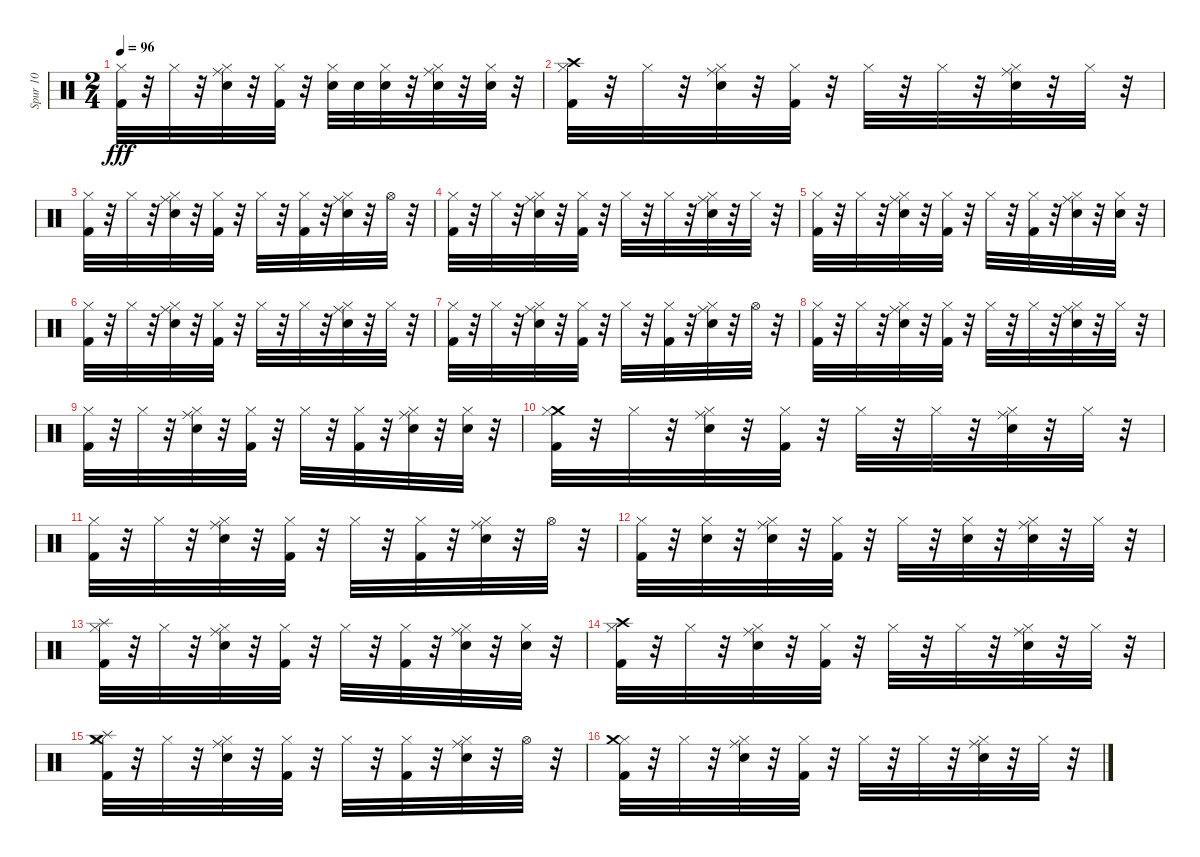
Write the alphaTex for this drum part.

\track ("Spur 10" "Spur 10") {instrument percussion}
\staff {score}
\articulation defaults
\ts (2 4)
\tempo 96
\clef neutral
\ks c
("Hi-Hat (closed)" "Kick (hit) 2").32{dy fff} r.32 "Hi-Hat (closed)".32 r.32 ("Hi-Hat (closed)" "Ride (middle)" "Electric Snare (hit)").32 r.32 ("Hi-Hat (closed)" "Kick (hit) 2").32 r.32 ("Hi-Hat (closed)" "Electric Snare (hit)").32 "Electric Snare (hit)".32 ("Hi-Hat (closed)" "Electric Snare (hit)").32 r.32 ("Hi-Hat (closed)" "Electric Snare (hit)" "Ride (middle)").32 r.32 ("Hi-Hat (closed)" "Electric Snare (hit)").32 r.32 |
("Hi-Hat (closed)" "Crash high (hit)" "Kick (hit) 2").32 r.32 "Hi-Hat (closed)".32 r.32 ("Hi-Hat (closed)" "Electric Snare (hit)" "Ride (middle)").32 r.32 ("Hi-Hat (closed)" "Kick (hit) 2").32 r.32 "Hi-Hat (closed)".32 r.32 "Hi-Hat (closed)".32 r.32 ("Hi-Hat (closed)" "Electric Snare (hit)" "Ride (middle)").32 r.32 "Hi-Hat (closed)".32 r.32 |
("Hi-Hat (closed)" "Kick (hit) 2").32 r.32 "Hi-Hat (closed)".32 r.32 ("Hi-Hat (closed)" "Electric Snare (hit)" "Ride (middle)").32 r.32 ("Hi-Hat (closed)" "Kick (hit) 2").32 r.32 "Hi-Hat (closed)".32 r.32 ("Hi-Hat (closed)" "Kick (hit) 2").32 r.32 ("Hi-Hat (closed)" "Electric Snare (hit)" "Ride (middle)").32 r.32 "Hi-Hat (open)".32 r.32 |
("Hi-Hat (closed)" "Kick (hit) 2").32 r.32 "Hi-Hat (closed)".32 r.32 ("Hi-Hat (closed)" "Ride (middle)" "Electric Snare (hit)").32 r.32 ("Hi-Hat (closed)" "Kick (hit) 2").32 r.32 "Hi-Hat (closed)".32 r.32 "Hi-Hat (closed)".32 r.32 ("Hi-Hat (closed)" "Ride (middle)" "Electric Snare (hit)").32 r.32 "Hi-Hat (closed)".32 r.32 |
("Hi-Hat (closed)" "Kick (hit) 2").32 r.32 "Hi-Hat (closed)".32 r.32 ("Hi-Hat (closed)" "Ride (middle)" "Electric Snare (hit)").32 r.32 ("Hi-Hat (closed)" "Kick (hit) 2").32 r.32 "Hi-Hat (closed)".32 r.32 ("Hi-Hat (closed)" "Kick (hit) 2").32 r.32 ("Hi-Hat (closed)" "Ride (middle)" "Electric Snare (hit)").32 r.32 ("Hi-Hat (closed)" "Electric Snare (hit)").32 r.32 |
("Hi-Hat (closed)" "Kick (hit) 2").32 r.32 "Hi-Hat (closed)".32 r.32 ("Hi-Hat (closed)" "Electric Snare (hit)" "Ride (middle)").32 r.32 ("Hi-Hat (closed)" "Kick (hit) 2").32 r.32 "Hi-Hat (closed)".32 r.32 "Hi-Hat (closed)".32 r.32 ("Hi-Hat (closed)" "Electric Snare (hit)" "Ride (middle)").32 r.32 "Hi-Hat (closed)".32 r.32 |
("Hi-Hat (closed)" "Kick (hit) 2").32 r.32 "Hi-Hat (closed)".32 r.32 ("Hi-Hat (closed)" "Electric Snare (hit)" "Ride (middle)").32 r.32 ("Hi-Hat (closed)" "Kick (hit) 2").32 r.32 "Hi-Hat (closed)".32 r.32 ("Hi-Hat (closed)" "Kick (hit) 2").32 r.32 ("Hi-Hat (closed)" "Electric Snare (hit)" "Ride (middle)").32 r.32 "Hi-Hat (open)".32 r.32 |
("Hi-Hat (closed)" "Kick (hit) 2").32 r.32 "Hi-Hat (closed)".32 r.32 ("Hi-Hat (closed)" "Ride (middle)" "Electric Snare (hit)").32 r.32 ("Hi-Hat (closed)" "Kick (hit) 2").32 r.32 "Hi-Hat (closed)".32 r.32 "Hi-Hat (closed)".32 r.32 ("Hi-Hat (closed)" "Ride (middle)" "Electric Snare (hit)").32 r.32 "Hi-Hat (closed)".32 r.32 |
("Hi-Hat (closed)" "Kick (hit) 2").32 r.32 "Hi-Hat (closed)".32 r.32 ("Hi-Hat (closed)" "Ride (middle)" "Electric Snare (hit)").32 r.32 ("Hi-Hat (closed)" "Kick (hit) 2").32 r.32 "Hi-Hat (closed)".32 r.32 ("Hi-Hat (closed)" "Kick (hit) 2").32 r.32 ("Hi-Hat (closed)" "Ride (middle)" "Electric Snare (hit)").32 r.32 ("Hi-Hat (closed)" "Electric Snare (hit)").32 r.32 |
("Crash medium (hit)" "Hi-Hat (closed)" "Kick (hit) 2").32 r.32 "Hi-Hat (closed)".32 r.32 ("Hi-Hat (closed)" "Electric Snare (hit)" "Ride (middle)").32 r.32 ("Hi-Hat (closed)" "Kick (hit) 2").32 r.32 "Hi-Hat (closed)".32 r.32 "Hi-Hat (closed)".32 r.32 ("Hi-Hat (closed)" "Electric Snare (hit)" "Ride (middle)").32 r.32 "Hi-Hat (closed)".32 r.32 |
("Hi-Hat (closed)" "Kick (hit) 2").32 r.32 "Hi-Hat (closed)".32 r.32 ("Hi-Hat (closed)" "Electric Snare (hit)" "Ride (middle)").32 r.32 ("Hi-Hat (closed)" "Kick (hit) 2").32 r.32 "Hi-Hat (closed)".32 r.32 ("Hi-Hat (closed)" "Kick (hit) 2").32 r.32 ("Hi-Hat (closed)" "Electric Snare (hit)" "Ride (middle)").32 r.32 "Hi-Hat (open)".32 r.32 |
("Hi-Hat (closed)" "Kick (hit) 2").32 r.32 ("Hi-Hat (closed)" "Electric Snare (hit)").32 r.32 ("Hi-Hat (closed)" "Ride (middle)" "Electric Snare (hit)").32 r.32 ("Hi-Hat (closed)" "Kick (hit) 2").32 r.32 "Hi-Hat (closed)".32 r.32 ("Hi-Hat (closed)" "Electric Snare (hit)").32 r.32 ("Hi-Hat (closed)" "Ride (middle)" "Electric Snare (hit)").32 r.32 "Hi-Hat (closed)".32 r.32 |
("Hi-Hat (closed)" "Splash (hit)" "Kick (hit) 2").32 r.32 "Hi-Hat (closed)".32 r.32 ("Hi-Hat (closed)" "Ride (middle)" "Electric Snare (hit)").32 r.32 ("Hi-Hat (closed)" "Kick (hit) 2").32 r.32 "Hi-Hat (closed)".32 r.32 ("Hi-Hat (closed)" "Kick (hit) 2").32 r.32 ("Hi-Hat (closed)" "Ride (middle)" "Electric Snare (hit)").32 r.32 ("Hi-Hat (closed)" "Electric Snare (hit)").32 r.32 |
("Crash high (hit)" "Hi-Hat (closed)" "Kick (hit) 2").32 r.32 "Hi-Hat (closed)".32 r.32 ("Hi-Hat (closed)" "Electric Snare (hit)" "Ride (middle)").32 r.32 ("Hi-Hat (closed)" "Kick (hit) 2").32 r.32 "Hi-Hat (closed)".32 r.32 "Hi-Hat (closed)".32 r.32 ("Hi-Hat (closed)" "Electric Snare (hit)" "Ride (middle)").32 r.32 "Hi-Hat (closed)".32 r.32 |
("Hi-Hat (closed)" "Splash (hit)" "Crash medium (hit)" "Kick (hit) 2").32 r.32 "Hi-Hat (closed)".32 r.32 ("Hi-Hat (closed)" "Electric Snare (hit)" "Ride (middle)").32 r.32 ("Hi-Hat (closed)" "Kick (hit) 2").32 r.32 "Hi-Hat (closed)".32 r.32 ("Hi-Hat (closed)" "Kick (hit) 2").32 r.32 ("Hi-Hat (closed)" "Electric Snare (hit)" "Ride (middle)").32 r.32 "Hi-Hat (open)".32 r.32 |
("Hi-Hat (closed)" "Crash medium (hit)" "Kick (hit) 2").32 r.32 "Hi-Hat (closed)".32 r.32 ("Hi-Hat (closed)" "Ride (middle)" "Electric Snare (hit)").32 r.32 ("Hi-Hat (closed)" "Kick (hit) 2").32 r.32 "Hi-Hat (closed)".32 r.32 "Hi-Hat (closed)".32 r.32 ("Hi-Hat (closed)" "Ride (middle)" "Electric Snare (hit)").32 r.32 "Hi-Hat (closed)".32 r.32
